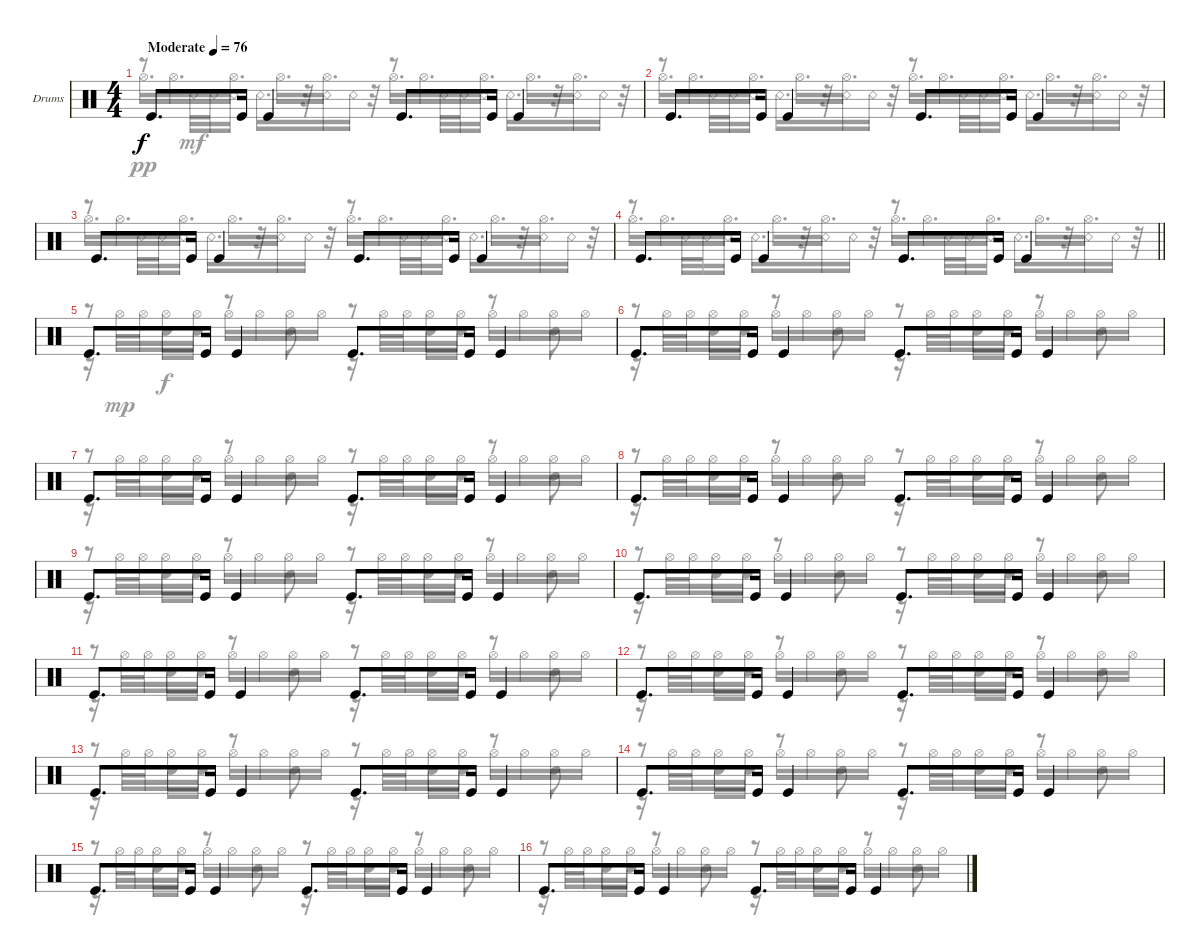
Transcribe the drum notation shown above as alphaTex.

\bracketExtendMode groupsimilarinstruments
\firstSystemTrackNameOrientation horizontal
\otherSystemsTrackNameOrientation horizontal
\track ("Drumkit" "Drums") {instrument percussion}
\staff {score}
\articulation defaults
\voice
\ts (4 4)
\beaming (8 2 2 2 2)
\tempo (76 "Moderate")
\clef neutral
\ks c "Kick (hit)".8{d dy f} "Kick (hit)".16 "Kick (hit)".4 "Kick (hit)".8{d} "Kick (hit)".16 "Kick (hit)".4
|
"Kick (hit)".8{d} "Kick (hit)".16 "Kick (hit)".4 "Kick (hit)".8{d} "Kick (hit)".16 "Kick (hit)".4 |
"Kick (hit)".8{d} "Kick (hit)".16 "Kick (hit)".4 "Kick (hit)".8{d} "Kick (hit)".16 "Kick (hit)".4 |
\barLineRight lightlight "Kick (hit)".8{d} "Kick (hit)".16 "Kick (hit)".4 "Kick (hit)".8{d} "Kick (hit)".16 "Kick (hit)".4
|
"Kick (hit)".8{d} "Kick (hit)".16 "Kick (hit)".4 "Kick (hit)".8{d} "Kick (hit)".16 "Kick (hit)".4 |
"Kick (hit)".8{d} "Kick (hit)".16 "Kick (hit)".4 "Kick (hit)".8{d} "Kick (hit)".16 "Kick (hit)".4 |
"Kick (hit)".8{d} "Kick (hit)".16 "Kick (hit)".4 "Kick (hit)".8{d} "Kick (hit)".16 "Kick (hit)".4 |
"Kick (hit)".8{d} "Kick (hit)".16 "Kick (hit)".4 "Kick (hit)".8{d} "Kick (hit)".16 "Kick (hit)".4 |
"Kick (hit)".8{d} "Kick (hit)".16 "Kick (hit)".4 "Kick (hit)".8{d} "Kick (hit)".16 "Kick (hit)".4 |
"Kick (hit)".8{d} "Kick (hit)".16 "Kick (hit)".4 "Kick (hit)".8{d} "Kick (hit)".16 "Kick (hit)".4 |
"Kick (hit)".8{d} "Kick (hit)".16 "Kick (hit)".4 "Kick (hit)".8{d} "Kick (hit)".16 "Kick (hit)".4 |
"Kick (hit)".8{d} "Kick (hit)".16 "Kick (hit)".4 "Kick (hit)".8{d} "Kick (hit)".16 "Kick (hit)".4 |
"Kick (hit)".8{d} "Kick (hit)".16 "Kick (hit)".4 "Kick (hit)".8{d} "Kick (hit)".16 "Kick (hit)".4 |
"Kick (hit)".8{d} "Kick (hit)".16 "Kick (hit)".4 "Kick (hit)".8{d} "Kick (hit)".16 "Kick (hit)".4 |
"Kick (hit)".8{d} "Kick (hit)".16 "Kick (hit)".4 "Kick (hit)".8{d} "Kick (hit)".16 "Kick (hit)".4 |
"Kick (hit)".8{d} "Kick (hit)".16 "Kick (hit)".4 "Kick (hit)".8{d} "Kick (hit)".16 "Kick (hit)".4
\voice
\clef neutral
\ottava regular
\simile none
\ks c
r.8{dy mf} "Snare (rim shot)".32 "Snare (rim shot)".32 "Snare (rim shot)".16 "Snare (rim shot)".16{d} r.32 "Snare (rim shot)".16 "Snare (rim shot)".16 r.8 "Snare (rim shot)".32 "Snare (rim shot)".32 "Snare (rim shot)".16 "Snare (rim shot)".16{d} r.32 "Snare (rim shot)".16 "Snare (rim shot)".16 |
r.8 "Snare (rim shot)".32 "Snare (rim shot)".32 "Snare (rim shot)".16 "Snare (rim shot)".16{d} r.32 "Snare (rim shot)".16 "Snare (rim shot)".16 r.8 "Snare (rim shot)".32 "Snare (rim shot)".32 "Snare (rim shot)".16 "Snare (rim shot)".16{d} r.32 "Snare (rim shot)".16 "Snare (rim shot)".16 |
r.8 "Snare (rim shot)".32 "Snare (rim shot)".32 "Snare (rim shot)".16 "Snare (rim shot)".16{d} r.32 "Snare (rim shot)".16 "Snare (rim shot)".16 r.8 "Snare (rim shot)".32 "Snare (rim shot)".32 "Snare (rim shot)".16 "Snare (rim shot)".16{d} r.32 "Snare (rim shot)".16 "Snare (rim shot)".16 |
\barLineRight lightlight
r.8 "Snare (rim shot)".32 "Snare (rim shot)".32 "Snare (rim shot)".16 "Snare (rim shot)".16{d} r.32 "Snare (rim shot)".16 "Snare (rim shot)".16 r.8 "Snare (rim shot)".32 "Snare (rim shot)".32 "Snare (rim shot)".16 "Snare (rim shot)".16{d} r.32 "Snare (rim shot)".16 "Snare (rim shot)".16 |
r.8 "Snare (hit) 2".16{dy f} "Snare (hit) 2".16 r.8 "Snare (hit) 2".8 r.8 "Snare (hit) 2".16 "Snare (hit) 2".16 r.8 "Snare (hit) 2".8 |
r.8 "Snare (hit) 2".16 "Snare (hit) 2".16 r.8 "Snare (hit) 2".8 r.8 "Snare (hit) 2".16 "Snare (hit) 2".16 r.8 "Snare (hit) 2".8 |
r.8 "Snare (hit) 2".16 "Snare (hit) 2".16 r.8 "Snare (hit) 2".8 r.8 "Snare (hit) 2".16 "Snare (hit) 2".16 r.8 "Snare (hit) 2".8 |
r.8 "Snare (hit) 2".16 "Snare (hit) 2".16 r.8 "Snare (hit) 2".8 r.8 "Snare (hit) 2".16 "Snare (hit) 2".16 r.8 "Snare (hit) 2".8 |
r.8 "Snare (hit) 2".16 "Snare (hit) 2".16 r.8 "Snare (hit) 2".8 r.8 "Snare (hit) 2".16 "Snare (hit) 2".16 r.8 "Snare (hit) 2".8 |
r.8 "Snare (hit) 2".16 "Snare (hit) 2".16 r.8 "Snare (hit) 2".8 r.8 "Snare (hit) 2".16 "Snare (hit) 2".16 r.8 "Snare (hit) 2".8 |
r.8 "Snare (hit) 2".16 "Snare (hit) 2".16 r.8 "Snare (hit) 2".8 r.8 "Snare (hit) 2".16 "Snare (hit) 2".16 r.8 "Snare (hit) 2".8 |
r.8 "Snare (hit) 2".16 "Snare (hit) 2".16 r.8 "Snare (hit) 2".8 r.8 "Snare (hit) 2".16 "Snare (hit) 2".16 r.8 "Snare (hit) 2".8 |
r.8 "Snare (hit) 2".16 "Snare (hit) 2".16 r.8 "Snare (hit) 2".8 r.8 "Snare (hit) 2".16 "Snare (hit) 2".16 r.8 "Snare (hit) 2".8 |
r.8 "Snare (hit) 2".16 "Snare (hit) 2".16 r.8 "Snare (hit) 2".8 r.8 "Snare (hit) 2".16 "Snare (hit) 2".16 r.8 "Snare (hit) 2".8 |
r.8 "Snare (hit) 2".16 "Snare (hit) 2".16 r.8 "Snare (hit) 2".8 r.8 "Snare (hit) 2".16 "Snare (hit) 2".16 r.8 "Snare (hit) 2".8 |
r.8 "Snare (hit) 2".16 "Snare (hit) 2".16 r.8 "Snare (hit) 2".8 r.8 "Snare (hit) 2".16 "Snare (hit) 2".16 r.8 "Snare (hit) 2".8
\voice
\clef neutral
\ottava regular
\simile none
\ks c "Hi-Hat (open)".16{d dy pp} "Hi-Hat (open)".16{d} "Hi-Hat (open)".16{d} "Hi-Hat (open)".16{d} "Hi-Hat (open)".16{d}
r.32 "Hi-Hat (open)".16{d} "Hi-Hat (open)".16{d} "Hi-Hat (open)".16{d} "Hi-Hat (open)".16{d} "Hi-Hat (open)".16{d} r.32 |
"Hi-Hat (open)".16{d} "Hi-Hat (open)".16{d} "Hi-Hat (open)".16{d} "Hi-Hat (open)".16{d} "Hi-Hat (open)".16{d} r.32 "Hi-Hat (open)".16{d} "Hi-Hat (open)".16{d} "Hi-Hat (open)".16{d} "Hi-Hat (open)".16{d} "Hi-Hat (open)".16{d} r.32 |
"Hi-Hat (open)".16{d} "Hi-Hat (open)".16{d} "Hi-Hat (open)".16{d} "Hi-Hat (open)".16{d} "Hi-Hat (open)".16{d} r.32 "Hi-Hat (open)".16{d} "Hi-Hat (open)".16{d} "Hi-Hat (open)".16{d} "Hi-Hat (open)".16{d} "Hi-Hat (open)".16{d} r.32 |
\barLineRight lightlight "Hi-Hat (open)".16{d} "Hi-Hat (open)".16{d} "Hi-Hat (open)".16{d} "Hi-Hat (open)".16{d} "Hi-Hat (open)".16{d}
r.32 "Hi-Hat (open)".16{d} "Hi-Hat (open)".16{d} "Hi-Hat (open)".16{d} "Hi-Hat (open)".16{d} "Hi-Hat (open)".16{d} r.32 |
r.16 "Hi-Hat (open)".32{dy mp} "Hi-Hat (open)".32 "Hi-Hat (open)".16 "Hi-Hat (open)".16 "Hi-Hat (open)".16 "Hi-Hat (open)".16 "Hi-Hat (open)".16 "Hi-Hat (open)".16 r.16 "Hi-Hat (open)".32 "Hi-Hat (open)".32 "Hi-Hat (open)".16 "Hi-Hat (open)".16 "Hi-Hat (open)".16 "Hi-Hat (open)".16 "Hi-Hat (open)".16 "Hi-Hat (open)".16 |
r.16 "Hi-Hat (open)".32 "Hi-Hat (open)".32 "Hi-Hat (open)".16 "Hi-Hat (open)".16 "Hi-Hat (open)".16 "Hi-Hat (open)".16 "Hi-Hat (open)".16 "Hi-Hat (open)".16 r.16 "Hi-Hat (open)".32 "Hi-Hat (open)".32 "Hi-Hat (open)".16 "Hi-Hat (open)".16 "Hi-Hat (open)".16 "Hi-Hat (open)".16 "Hi-Hat (open)".16 "Hi-Hat (open)".16 |
r.16 "Hi-Hat (open)".32 "Hi-Hat (open)".32 "Hi-Hat (open)".16 "Hi-Hat (open)".16 "Hi-Hat (open)".16 "Hi-Hat (open)".16 "Hi-Hat (open)".16 "Hi-Hat (open)".16 r.16 "Hi-Hat (open)".32 "Hi-Hat (open)".32 "Hi-Hat (open)".16 "Hi-Hat (open)".16 "Hi-Hat (open)".16 "Hi-Hat (open)".16 "Hi-Hat (open)".16 "Hi-Hat (open)".16 |
r.16 "Hi-Hat (open)".32 "Hi-Hat (open)".32 "Hi-Hat (open)".16 "Hi-Hat (open)".16 "Hi-Hat (open)".16 "Hi-Hat (open)".16 "Hi-Hat (open)".16 "Hi-Hat (open)".16 r.16 "Hi-Hat (open)".32 "Hi-Hat (open)".32 "Hi-Hat (open)".16 "Hi-Hat (open)".16 "Hi-Hat (open)".16 "Hi-Hat (open)".16 "Hi-Hat (open)".16 "Hi-Hat (open)".16 |
r.16 "Hi-Hat (open)".32 "Hi-Hat (open)".32 "Hi-Hat (open)".16 "Hi-Hat (open)".16 "Hi-Hat (open)".16 "Hi-Hat (open)".16 "Hi-Hat (open)".16 "Hi-Hat (open)".16 r.16 "Hi-Hat (open)".32 "Hi-Hat (open)".32 "Hi-Hat (open)".16 "Hi-Hat (open)".16 "Hi-Hat (open)".16 "Hi-Hat (open)".16 "Hi-Hat (open)".16 "Hi-Hat (open)".16 |
r.16 "Hi-Hat (open)".32 "Hi-Hat (open)".32 "Hi-Hat (open)".16 "Hi-Hat (open)".16 "Hi-Hat (open)".16 "Hi-Hat (open)".16 "Hi-Hat (open)".16 "Hi-Hat (open)".16 r.16 "Hi-Hat (open)".32 "Hi-Hat (open)".32 "Hi-Hat (open)".16 "Hi-Hat (open)".16 "Hi-Hat (open)".16 "Hi-Hat (open)".16 "Hi-Hat (open)".16 "Hi-Hat (open)".16 |
r.16 "Hi-Hat (open)".32 "Hi-Hat (open)".32 "Hi-Hat (open)".16 "Hi-Hat (open)".16 "Hi-Hat (open)".16 "Hi-Hat (open)".16 "Hi-Hat (open)".16 "Hi-Hat (open)".16 r.16 "Hi-Hat (open)".32 "Hi-Hat (open)".32 "Hi-Hat (open)".16 "Hi-Hat (open)".16 "Hi-Hat (open)".16 "Hi-Hat (open)".16 "Hi-Hat (open)".16 "Hi-Hat (open)".16 |
r.16 "Hi-Hat (open)".32 "Hi-Hat (open)".32 "Hi-Hat (open)".16 "Hi-Hat (open)".16 "Hi-Hat (open)".16 "Hi-Hat (open)".16 "Hi-Hat (open)".16 "Hi-Hat (open)".16 r.16 "Hi-Hat (open)".32 "Hi-Hat (open)".32 "Hi-Hat (open)".16 "Hi-Hat (open)".16 "Hi-Hat (open)".16 "Hi-Hat (open)".16 "Hi-Hat (open)".16 "Hi-Hat (open)".16 |
r.16 "Hi-Hat (open)".32 "Hi-Hat (open)".32 "Hi-Hat (open)".16 "Hi-Hat (open)".16 "Hi-Hat (open)".16 "Hi-Hat (open)".16 "Hi-Hat (open)".16 "Hi-Hat (open)".16 r.16 "Hi-Hat (open)".32 "Hi-Hat (open)".32 "Hi-Hat (open)".16 "Hi-Hat (open)".16 "Hi-Hat (open)".16 "Hi-Hat (open)".16 "Hi-Hat (open)".16 "Hi-Hat (open)".16 |
r.16 "Hi-Hat (open)".32 "Hi-Hat (open)".32 "Hi-Hat (open)".16 "Hi-Hat (open)".16 "Hi-Hat (open)".16 "Hi-Hat (open)".16 "Hi-Hat (open)".16 "Hi-Hat (open)".16 r.16 "Hi-Hat (open)".32 "Hi-Hat (open)".32 "Hi-Hat (open)".16 "Hi-Hat (open)".16 "Hi-Hat (open)".16 "Hi-Hat (open)".16 "Hi-Hat (open)".16 "Hi-Hat (open)".16 |
r.16 "Hi-Hat (open)".32 "Hi-Hat (open)".32 "Hi-Hat (open)".16 "Hi-Hat (open)".16 "Hi-Hat (open)".16 "Hi-Hat (open)".16 "Hi-Hat (open)".16 "Hi-Hat (open)".16 r.16 "Hi-Hat (open)".32 "Hi-Hat (open)".32 "Hi-Hat (open)".16 "Hi-Hat (open)".16 "Hi-Hat (open)".16 "Hi-Hat (open)".16 "Hi-Hat (open)".16 "Hi-Hat (open)".16 |
r.16 "Hi-Hat (open)".32 "Hi-Hat (open)".32 "Hi-Hat (open)".16 "Hi-Hat (open)".16 "Hi-Hat (open)".16 "Hi-Hat (open)".16 "Hi-Hat (open)".16 "Hi-Hat (open)".16 r.16 "Hi-Hat (open)".32 "Hi-Hat (open)".32 "Hi-Hat (open)".16 "Hi-Hat (open)".16 "Hi-Hat (open)".16 "Hi-Hat (open)".16 "Hi-Hat (open)".16 "Hi-Hat (open)".16
